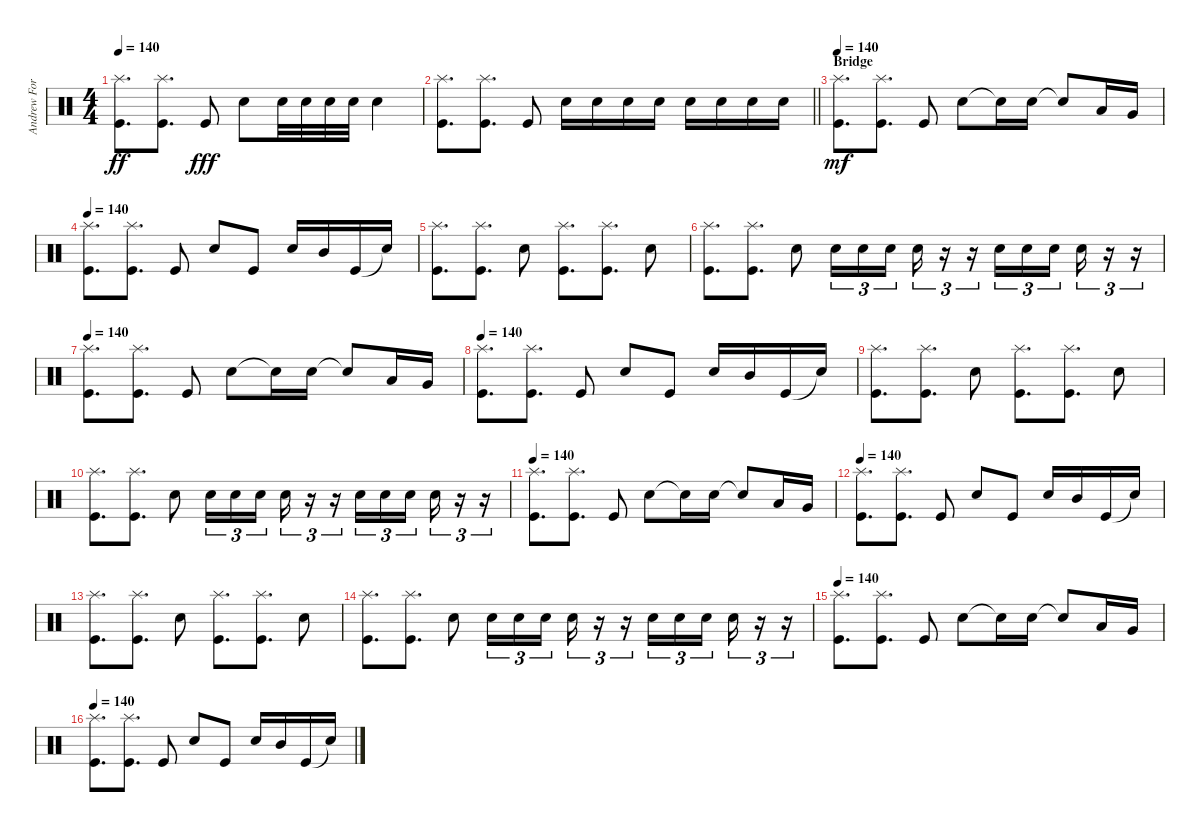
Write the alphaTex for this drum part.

\track ("Andrew Forsman" "Andrew For") {instrument percussion}
\staff {score}
\articulation defaults
\ts (4 4)
\tempo 140
\clef neutral
\ks c
("Splash (hit)" "Kick (hit)").8{d dy ff} ("Splash (hit)" "Kick (hit)").8{d} "Kick (hit)".8{dy fff} "Electric Snare (hit)".8 "Electric Snare (hit)".32 "Electric Snare (hit)".32 "Electric Snare (hit)".32 "Electric Snare (hit)".32 "Electric Snare (hit)".4 |
\barLineRight lightlight
("Splash (hit)" "Kick (hit)").8{d} ("Splash (hit)" "Kick (hit)").8{d} "Kick (hit)".8 "Electric Snare (hit)".16 "Electric Snare (hit)".16 "Electric Snare (hit)".16 "Electric Snare (hit)".16 "Electric Snare (hit)".16 "Electric Snare (hit)".16 "Electric Snare (hit)".16 "Electric Snare (hit)".16 |
\section ("" "Bridge")
\tempo 140
("Splash (hit)" "Kick (hit)").8{d dy mf} ("Splash (hit)" "Kick (hit)").8{d} "Kick (hit)".8 "Electric Snare (hit)".8 "Electric Snare (hit)"{t}.16 "Electric Snare (hit)".16 "Electric Snare (hit)"{t}.8 "Low Tom (hit)".16 "Very Low Tom (hit)".16 |
\tempo 140
("Splash (hit)" "Kick (hit)").8{d} ("Splash (hit)" "Kick (hit)").8{d} "Kick (hit)".8 "Electric Snare (hit)".8 "Kick (hit)".8 "Electric Snare (hit)".16 "Mid Tom (hit)".16 "Kick (hit)".16 "Snare (hit)"{t}.16 |
("Splash (hit)" "Kick (hit)").8{d} ("Splash (hit)" "Kick (hit)").8{d} "Electric Snare (hit)".8 ("Splash (hit)" "Kick (hit)").8{d} ("Splash (hit)" "Kick (hit)").8{d} "Electric Snare (hit)".8 |
("Splash (hit)" "Kick (hit)").8{d} ("Splash (hit)" "Kick (hit)").8{d} "Electric Snare (hit)".8 "Electric Snare (hit)".16{tu (3 2)} "Electric Snare (hit)".16{tu (3 2)} "Electric Snare (hit)".16{tu (3 2) beam splitsecondary} "Electric Snare (hit)".16{tu (3 2)} r.16{tu (3 2)} r.16{tu (3 2)} "Electric Snare (hit)".16{tu (3 2)} "Electric Snare (hit)".16{tu (3 2)} "Electric Snare (hit)".16{tu (3 2) beam splitsecondary} "Electric Snare (hit)".16{tu (3 2)} r.16{tu (3 2)} r.16{tu (3 2)} |
\tempo 140
("Splash (hit)" "Kick (hit)").8{d} ("Splash (hit)" "Kick (hit)").8{d} "Kick (hit)".8 "Electric Snare (hit)".8 "Electric Snare (hit)"{t}.16 "Electric Snare (hit)".16 "Electric Snare (hit)"{t}.8 "Low Tom (hit)".16 "Very Low Tom (hit)".16 |
\tempo 140
("Splash (hit)" "Kick (hit)").8{d} ("Splash (hit)" "Kick (hit)").8{d} "Kick (hit)".8 "Electric Snare (hit)".8 "Kick (hit)".8 "Electric Snare (hit)".16 "Mid Tom (hit)".16 "Kick (hit)".16 "Snare (hit)"{t}.16 |
("Splash (hit)" "Kick (hit)").8{d} ("Splash (hit)" "Kick (hit)").8{d} "Electric Snare (hit)".8 ("Splash (hit)" "Kick (hit)").8{d} ("Splash (hit)" "Kick (hit)").8{d} "Electric Snare (hit)".8 |
("Splash (hit)" "Kick (hit)").8{d} ("Splash (hit)" "Kick (hit)").8{d} "Electric Snare (hit)".8 "Electric Snare (hit)".16{tu (3 2)} "Electric Snare (hit)".16{tu (3 2)} "Electric Snare (hit)".16{tu (3 2) beam splitsecondary} "Electric Snare (hit)".16{tu (3 2)} r.16{tu (3 2)} r.16{tu (3 2)} "Electric Snare (hit)".16{tu (3 2)} "Electric Snare (hit)".16{tu (3 2)} "Electric Snare (hit)".16{tu (3 2) beam splitsecondary} "Electric Snare (hit)".16{tu (3 2)} r.16{tu (3 2)} r.16{tu (3 2)} |
\tempo 140
("Splash (hit)" "Kick (hit)").8{d} ("Splash (hit)" "Kick (hit)").8{d} "Kick (hit)".8 "Electric Snare (hit)".8 "Electric Snare (hit)"{t}.16 "Electric Snare (hit)".16 "Electric Snare (hit)"{t}.8 "Low Tom (hit)".16 "Very Low Tom (hit)".16 |
\tempo 140
("Splash (hit)" "Kick (hit)").8{d} ("Splash (hit)" "Kick (hit)").8{d} "Kick (hit)".8 "Electric Snare (hit)".8 "Kick (hit)".8 "Electric Snare (hit)".16 "Mid Tom (hit)".16 "Kick (hit)".16 "Snare (hit)"{t}.16 |
("Splash (hit)" "Kick (hit)").8{d} ("Splash (hit)" "Kick (hit)").8{d} "Electric Snare (hit)".8 ("Splash (hit)" "Kick (hit)").8{d} ("Splash (hit)" "Kick (hit)").8{d} "Electric Snare (hit)".8 |
("Splash (hit)" "Kick (hit)").8{d} ("Splash (hit)" "Kick (hit)").8{d} "Electric Snare (hit)".8 "Electric Snare (hit)".16{tu (3 2)} "Electric Snare (hit)".16{tu (3 2)} "Electric Snare (hit)".16{tu (3 2) beam splitsecondary} "Electric Snare (hit)".16{tu (3 2)} r.16{tu (3 2)} r.16{tu (3 2)} "Electric Snare (hit)".16{tu (3 2)} "Electric Snare (hit)".16{tu (3 2)} "Electric Snare (hit)".16{tu (3 2) beam splitsecondary} "Electric Snare (hit)".16{tu (3 2)} r.16{tu (3 2)} r.16{tu (3 2)} |
\tempo 140
("Splash (hit)" "Kick (hit)").8{d} ("Splash (hit)" "Kick (hit)").8{d} "Kick (hit)".8 "Electric Snare (hit)".8 "Electric Snare (hit)"{t}.16 "Electric Snare (hit)".16 "Electric Snare (hit)"{t}.8 "Low Tom (hit)".16 "Very Low Tom (hit)".16 |
\tempo 140
("Splash (hit)" "Kick (hit)").8{d} ("Splash (hit)" "Kick (hit)").8{d} "Kick (hit)".8 "Electric Snare (hit)".8 "Kick (hit)".8 "Electric Snare (hit)".16 "Mid Tom (hit)".16 "Kick (hit)".16 "Snare (hit)"{t}.16
